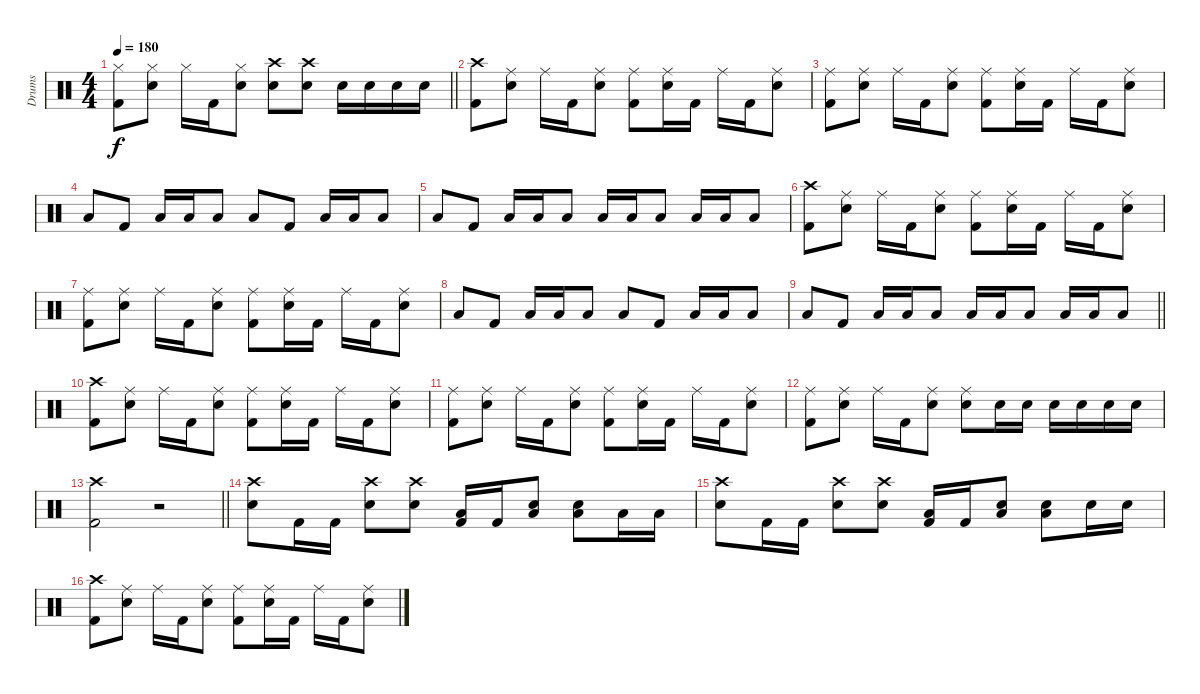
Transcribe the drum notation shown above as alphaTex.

\track ("Drums" "Drums") {instrument percussion}
\staff {score}
\articulation defaults
\ts (4 4)
\tempo 180
\clef neutral
\barLineRight lightlight
\ks c
("Hi-Hat (closed)" "Kick (hit) 2").8{dy f} ("Hi-Hat (closed)" "Snare (hit) 2").8 "Hi-Hat (closed)".16 "Kick (hit) 2".16 ("Hi-Hat (closed)" "Snare (hit) 2").8 ("Crash high (hit)" "Snare (hit) 2").8 ("Crash high (hit)" "Snare (hit) 2").8 "Snare (hit) 2".16 "Snare (hit) 2".16 "Snare (hit) 2".16 "Snare (hit) 2".16 |
("Crash high (hit)" "Kick (hit) 2").8 ("Ride (middle)" "Snare (hit) 2").8 "Ride (middle)".16 "Kick (hit) 2".16 ("Ride (middle)" "Snare (hit) 2").8 ("Ride (middle)" "Kick (hit) 2").8 ("Ride (middle)" "Snare (hit) 2").16 "Kick (hit) 2".16 "Ride (middle)".16 "Kick (hit) 2".16 ("Ride (middle)" "Snare (hit) 2").8 |
("Ride (middle)" "Kick (hit) 2").8 ("Ride (middle)" "Snare (hit) 2").8 "Ride (middle)".16 "Kick (hit) 2".16 ("Ride (middle)" "Snare (hit) 2").8 ("Ride (middle)" "Kick (hit) 2").8 ("Ride (middle)" "Snare (hit) 2").16 "Kick (hit) 2".16 "Ride (middle)".16 "Kick (hit) 2".16 ("Ride (middle)" "Snare (hit) 2").8 |
"Low Floor Tom (hit)".8 "Kick (hit) 2".8 "Low Floor Tom (hit)".16 "Low Floor Tom (hit)".16 "Low Floor Tom (hit)".8 "Low Floor Tom (hit)".8 "Kick (hit) 2".8 "Low Floor Tom (hit)".16 "Low Floor Tom (hit)".16 "Low Floor Tom (hit)".8 |
"Low Floor Tom (hit)".8 "Kick (hit) 2".8 "Low Floor Tom (hit)".16 "Low Floor Tom (hit)".16 "Low Floor Tom (hit)".8 "Low Floor Tom (hit)".16 "Low Floor Tom (hit)".16 "Low Floor Tom (hit)".8 "Low Floor Tom (hit)".16 "Low Floor Tom (hit)".16 "Low Floor Tom (hit)".8 |
("Crash high (hit)" "Kick (hit) 2").8 ("Ride (middle)" "Snare (hit) 2").8 "Ride (middle)".16 "Kick (hit) 2".16 ("Ride (middle)" "Snare (hit) 2").8 ("Ride (middle)" "Kick (hit) 2").8 ("Ride (middle)" "Snare (hit) 2").16 "Kick (hit) 2".16 "Ride (middle)".16 "Kick (hit) 2".16 ("Ride (middle)" "Snare (hit) 2").8 |
("Ride (middle)" "Kick (hit) 2").8 ("Ride (middle)" "Snare (hit) 2").8 "Ride (middle)".16 "Kick (hit) 2".16 ("Ride (middle)" "Snare (hit) 2").8 ("Ride (middle)" "Kick (hit) 2").8 ("Ride (middle)" "Snare (hit) 2").16 "Kick (hit) 2".16 "Ride (middle)".16 "Kick (hit) 2".16 ("Ride (middle)" "Snare (hit) 2").8 |
"Low Floor Tom (hit)".8 "Kick (hit) 2".8 "Low Floor Tom (hit)".16 "Low Floor Tom (hit)".16 "Low Floor Tom (hit)".8 "Low Floor Tom (hit)".8 "Kick (hit) 2".8 "Low Floor Tom (hit)".16 "Low Floor Tom (hit)".16 "Low Floor Tom (hit)".8 |
\barLineRight lightlight "Low Floor Tom (hit)".8 "Kick (hit) 2".8 "Low Floor Tom (hit)".16 "Low Floor Tom (hit)".16 "Low Floor Tom (hit)".8 "Low Floor Tom (hit)".16 "Low Floor Tom (hit)".16 "Low Floor Tom (hit)".8 "Low Floor Tom (hit)".16 "Low Floor Tom (hit)".16 "Low Floor Tom (hit)".8
|
("Crash high (hit)" "Kick (hit) 2").8 ("Ride (middle)" "Snare (hit) 2").8 "Ride (middle)".16 "Kick (hit) 2".16 ("Ride (middle)" "Snare (hit) 2").8 ("Ride (middle)" "Kick (hit) 2").8 ("Ride (middle)" "Snare (hit) 2").16 "Kick (hit) 2".16 "Ride (middle)".16 "Kick (hit) 2".16 ("Ride (middle)" "Snare (hit) 2").8 |
("Ride (middle)" "Kick (hit) 2").8 ("Ride (middle)" "Snare (hit) 2").8 "Ride (middle)".16 "Kick (hit) 2".16 ("Ride (middle)" "Snare (hit) 2").8 ("Ride (middle)" "Kick (hit) 2").8 ("Ride (middle)" "Snare (hit) 2").16 "Kick (hit) 2".16 "Ride (middle)".16 "Kick (hit) 2".16 ("Ride (middle)" "Snare (hit) 2").8 |
("Ride (middle)" "Kick (hit) 2").8 ("Ride (middle)" "Snare (hit) 2").8 "Ride (middle)".16 "Kick (hit) 2".16 ("Ride (middle)" "Snare (hit) 2").8 ("Ride (middle)" "Snare (hit) 2").8 "Snare (hit) 2".16 "Snare (hit) 2".16 "Snare (hit) 2".16 "Snare (hit) 2".16 "Snare (hit) 2".16 "Snare (hit) 2".16 |
\barLineRight lightlight
("Crash high (hit)" "Kick (hit) 2").2 r.2 |
("Crash high (hit)" "Snare (hit) 2").8 "Kick (hit) 2".16 "Kick (hit) 2".16 ("Crash high (hit)" "Snare (hit) 2").8 ("Crash high (hit)" "Snare (hit) 2").8 ("Low Tom (hit)" "Kick (hit) 2").16 "Kick (hit) 2".16 ("Snare (hit) 2" "Low Floor Tom (hit)").8 ("Snare (hit) 2" "Low Floor Tom (hit)").8 "Low Floor Tom (hit)".16 "Low Floor Tom (hit)".16 |
("Crash high (hit)" "Snare (hit) 2").8 "Kick (hit) 2".16 "Kick (hit) 2".16 ("Crash high (hit)" "Snare (hit) 2").8 ("Crash high (hit)" "Snare (hit) 2").8 ("Low Tom (hit)" "Kick (hit) 2").16 "Kick (hit) 2".16 ("Snare (hit) 2" "Low Floor Tom (hit)").8 ("Snare (hit) 2" "Low Floor Tom (hit)").8 "Snare (hit) 2".16 "Snare (hit) 2".16 |
("Crash high (hit)" "Kick (hit) 2").8 ("Ride (middle)" "Snare (hit) 2").8 "Ride (middle)".16 "Kick (hit) 2".16 ("Ride (middle)" "Snare (hit) 2").8 ("Ride (middle)" "Kick (hit) 2").8 ("Ride (middle)" "Snare (hit) 2").16 "Kick (hit) 2".16 "Ride (middle)".16 "Kick (hit) 2".16 ("Ride (middle)" "Snare (hit) 2").8
